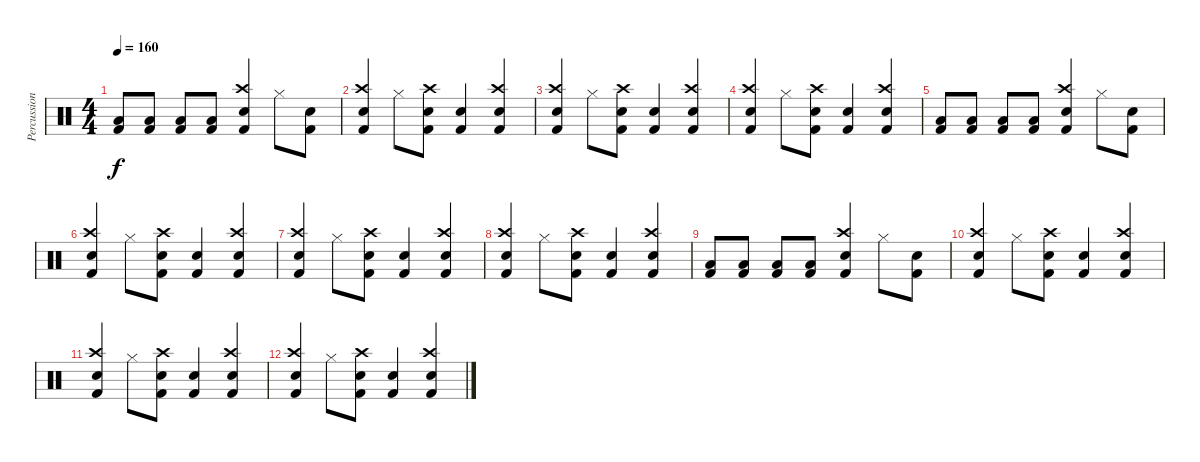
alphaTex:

\track ("Percussion" "Percussion") {instrument percussion}
\staff {score}
\articulation defaults
\ts (4 4)
\tempo 160
\clef neutral
\ks c
("Low Floor Tom (hit)" "Kick (hit) 2").8{dy f} ("Low Floor Tom (hit)" "Kick (hit) 2").8 ("Low Floor Tom (hit)" "Kick (hit) 2").8 ("Low Floor Tom (hit)" "Kick (hit) 2").8 ("Crash high (hit)" "Electric Snare (hit)" "Kick (hit) 2").4 "Hi-Hat (closed)".8 ("Electric Snare (hit)" "Kick (hit) 2").8 |
("Crash high (hit)" "Electric Snare (hit)" "Kick (hit) 2").4 "Hi-Hat (closed)".8 ("Crash high (hit)" "Electric Snare (hit)" "Kick (hit) 2").8 ("Electric Snare (hit)" "Kick (hit) 2").4 ("Crash high (hit)" "Electric Snare (hit)" "Kick (hit) 2").4 |
("Crash high (hit)" "Electric Snare (hit)" "Kick (hit) 2").4 "Hi-Hat (closed)".8 ("Crash high (hit)" "Electric Snare (hit)" "Kick (hit) 2").8 ("Electric Snare (hit)" "Kick (hit) 2").4 ("Crash high (hit)" "Electric Snare (hit)" "Kick (hit) 2").4 |
("Crash high (hit)" "Electric Snare (hit)" "Kick (hit) 2").4 "Hi-Hat (closed)".8 ("Crash high (hit)" "Electric Snare (hit)" "Kick (hit) 2").8 ("Electric Snare (hit)" "Kick (hit) 2").4 ("Crash high (hit)" "Electric Snare (hit)" "Kick (hit) 2").4 |
("Low Floor Tom (hit)" "Kick (hit) 2").8 ("Low Floor Tom (hit)" "Kick (hit) 2").8 ("Low Floor Tom (hit)" "Kick (hit) 2").8 ("Low Floor Tom (hit)" "Kick (hit) 2").8 ("Crash high (hit)" "Electric Snare (hit)" "Kick (hit) 2").4 "Hi-Hat (closed)".8 ("Electric Snare (hit)" "Kick (hit) 2").8 |
("Crash high (hit)" "Electric Snare (hit)" "Kick (hit) 2").4 "Hi-Hat (closed)".8 ("Crash high (hit)" "Electric Snare (hit)" "Kick (hit) 2").8 ("Electric Snare (hit)" "Kick (hit) 2").4 ("Crash high (hit)" "Electric Snare (hit)" "Kick (hit) 2").4 |
("Crash high (hit)" "Electric Snare (hit)" "Kick (hit) 2").4 "Hi-Hat (closed)".8 ("Crash high (hit)" "Electric Snare (hit)" "Kick (hit) 2").8 ("Electric Snare (hit)" "Kick (hit) 2").4 ("Crash high (hit)" "Electric Snare (hit)" "Kick (hit) 2").4 |
("Crash high (hit)" "Electric Snare (hit)" "Kick (hit) 2").4 "Hi-Hat (closed)".8 ("Crash high (hit)" "Electric Snare (hit)" "Kick (hit) 2").8 ("Electric Snare (hit)" "Kick (hit) 2").4 ("Crash high (hit)" "Electric Snare (hit)" "Kick (hit) 2").4 |
("Low Floor Tom (hit)" "Kick (hit) 2").8 ("Low Floor Tom (hit)" "Kick (hit) 2").8 ("Low Floor Tom (hit)" "Kick (hit) 2").8 ("Low Floor Tom (hit)" "Kick (hit) 2").8 ("Crash high (hit)" "Electric Snare (hit)" "Kick (hit) 2").4 "Hi-Hat (closed)".8 ("Electric Snare (hit)" "Kick (hit) 2").8 |
("Crash high (hit)" "Electric Snare (hit)" "Kick (hit) 2").4 "Hi-Hat (closed)".8 ("Crash high (hit)" "Electric Snare (hit)" "Kick (hit) 2").8 ("Electric Snare (hit)" "Kick (hit) 2").4 ("Crash high (hit)" "Electric Snare (hit)" "Kick (hit) 2").4 |
("Crash high (hit)" "Electric Snare (hit)" "Kick (hit) 2").4 "Hi-Hat (closed)".8 ("Crash high (hit)" "Electric Snare (hit)" "Kick (hit) 2").8 ("Electric Snare (hit)" "Kick (hit) 2").4 ("Crash high (hit)" "Electric Snare (hit)" "Kick (hit) 2").4 |
("Crash high (hit)" "Electric Snare (hit)" "Kick (hit) 2").4 "Hi-Hat (closed)".8 ("Crash high (hit)" "Electric Snare (hit)" "Kick (hit) 2").8 ("Electric Snare (hit)" "Kick (hit) 2").4 ("Crash high (hit)" "Electric Snare (hit)" "Kick (hit) 2").4
